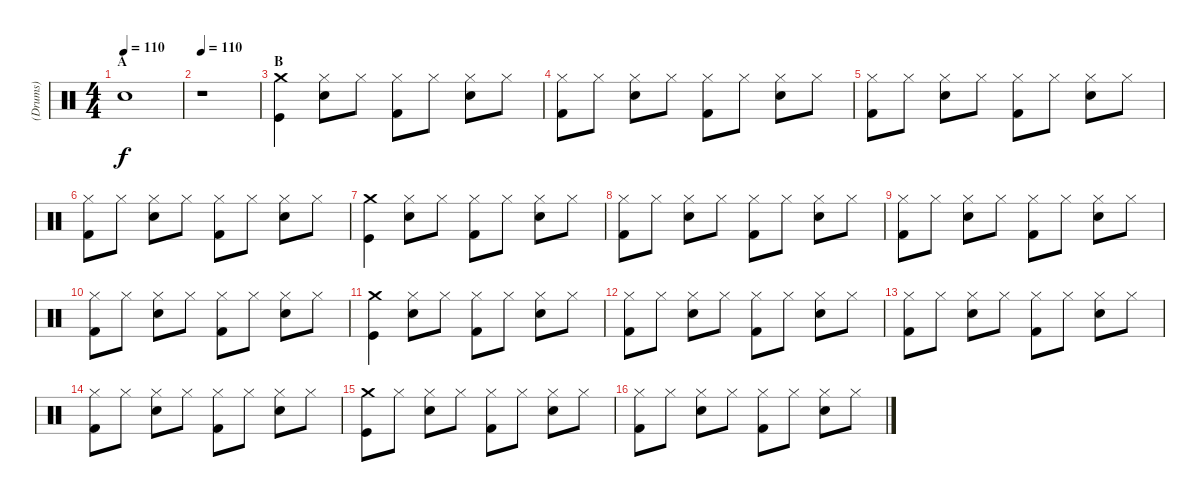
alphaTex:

\track ("(Drums)" "(Drums)") {instrument percussion}
\staff {score}
\articulation defaults
\ts (4 4)
\section ("" "A")
\tempo 110
\tempo 90
\tempo 110
\clef neutral
\ks c "Snare (hit)"{x}.1{dy f}
|
\tempo 110
r.1 |
\section ("" "B")
("Crash medium (hit)" "Kick (hit)").4 ("Hi-Hat (closed)" "Electric Snare (hit)").8 "Hi-Hat (closed)".8 ("Hi-Hat (closed)" "Kick (hit) 2").8 "Hi-Hat (closed)".8 ("Hi-Hat (closed)" "Electric Snare (hit)").8 "Hi-Hat (closed)".8 |
("Hi-Hat (closed)" "Kick (hit) 2").8 "Hi-Hat (closed)".8 ("Hi-Hat (closed)" "Electric Snare (hit)").8 "Hi-Hat (closed)".8 ("Hi-Hat (closed)" "Kick (hit) 2").8 "Hi-Hat (closed)".8 ("Hi-Hat (closed)" "Electric Snare (hit)").8 "Hi-Hat (closed)".8 |
("Hi-Hat (closed)" "Kick (hit) 2").8 "Hi-Hat (closed)".8 ("Hi-Hat (closed)" "Electric Snare (hit)").8 "Hi-Hat (closed)".8 ("Hi-Hat (closed)" "Kick (hit) 2").8 "Hi-Hat (closed)".8 ("Hi-Hat (closed)" "Electric Snare (hit)").8 "Hi-Hat (closed)".8 |
("Hi-Hat (closed)" "Kick (hit) 2").8 "Hi-Hat (closed)".8 ("Hi-Hat (closed)" "Electric Snare (hit)").8 "Hi-Hat (closed)".8 ("Hi-Hat (closed)" "Kick (hit) 2").8 "Hi-Hat (closed)".8 ("Hi-Hat (closed)" "Electric Snare (hit)").8 "Hi-Hat (closed)".8 |
("Crash medium (hit)" "Kick (hit)").4 ("Hi-Hat (closed)" "Electric Snare (hit)").8 "Hi-Hat (closed)".8 ("Hi-Hat (closed)" "Kick (hit) 2").8 "Hi-Hat (closed)".8 ("Hi-Hat (closed)" "Electric Snare (hit)").8 "Hi-Hat (closed)".8 |
("Hi-Hat (closed)" "Kick (hit) 2").8 "Hi-Hat (closed)".8 ("Hi-Hat (closed)" "Electric Snare (hit)").8 "Hi-Hat (closed)".8 ("Hi-Hat (closed)" "Kick (hit) 2").8 "Hi-Hat (closed)".8 ("Hi-Hat (closed)" "Electric Snare (hit)").8 "Hi-Hat (closed)".8 |
("Hi-Hat (closed)" "Kick (hit) 2").8 "Hi-Hat (closed)".8 ("Hi-Hat (closed)" "Electric Snare (hit)").8 "Hi-Hat (closed)".8 ("Hi-Hat (closed)" "Kick (hit) 2").8 "Hi-Hat (closed)".8 ("Hi-Hat (closed)" "Electric Snare (hit)").8 "Hi-Hat (closed)".8 |
("Hi-Hat (closed)" "Kick (hit) 2").8 "Hi-Hat (closed)".8 ("Hi-Hat (closed)" "Electric Snare (hit)").8 "Hi-Hat (closed)".8 ("Hi-Hat (closed)" "Kick (hit) 2").8 "Hi-Hat (closed)".8 ("Hi-Hat (closed)" "Electric Snare (hit)").8 "Hi-Hat (closed)".8 |
("Crash medium (hit)" "Kick (hit)").4 ("Hi-Hat (closed)" "Electric Snare (hit)").8 "Hi-Hat (closed)".8 ("Hi-Hat (closed)" "Kick (hit) 2").8 "Hi-Hat (closed)".8 ("Hi-Hat (closed)" "Electric Snare (hit)").8 "Hi-Hat (closed)".8 |
("Hi-Hat (closed)" "Kick (hit) 2").8 "Hi-Hat (closed)".8 ("Hi-Hat (closed)" "Electric Snare (hit)").8 "Hi-Hat (closed)".8 ("Hi-Hat (closed)" "Kick (hit) 2").8 "Hi-Hat (closed)".8 ("Hi-Hat (closed)" "Electric Snare (hit)").8 "Hi-Hat (closed)".8 |
("Hi-Hat (closed)" "Kick (hit) 2").8 "Hi-Hat (closed)".8 ("Hi-Hat (closed)" "Electric Snare (hit)").8 "Hi-Hat (closed)".8 ("Hi-Hat (closed)" "Kick (hit) 2").8 "Hi-Hat (closed)".8 ("Hi-Hat (closed)" "Electric Snare (hit)").8 "Hi-Hat (closed)".8 |
("Hi-Hat (closed)" "Kick (hit) 2").8 "Hi-Hat (closed)".8 ("Hi-Hat (closed)" "Electric Snare (hit)").8 "Hi-Hat (closed)".8 ("Hi-Hat (closed)" "Kick (hit) 2").8 "Hi-Hat (closed)".8 ("Hi-Hat (closed)" "Electric Snare (hit)").8 "Hi-Hat (closed)".8 |
("Crash medium (hit)" "Kick (hit)").8 "Hi-Hat (closed)".8 ("Hi-Hat (closed)" "Electric Snare (hit)").8 "Hi-Hat (closed)".8 ("Hi-Hat (closed)" "Kick (hit) 2").8 "Hi-Hat (closed)".8 ("Hi-Hat (closed)" "Electric Snare (hit)").8 "Hi-Hat (closed)".8 |
("Hi-Hat (closed)" "Kick (hit) 2").8 "Hi-Hat (closed)".8 ("Hi-Hat (closed)" "Electric Snare (hit)").8 "Hi-Hat (closed)".8 ("Hi-Hat (closed)" "Kick (hit) 2").8 "Hi-Hat (closed)".8 ("Hi-Hat (closed)" "Electric Snare (hit)").8 "Hi-Hat (closed)".8
